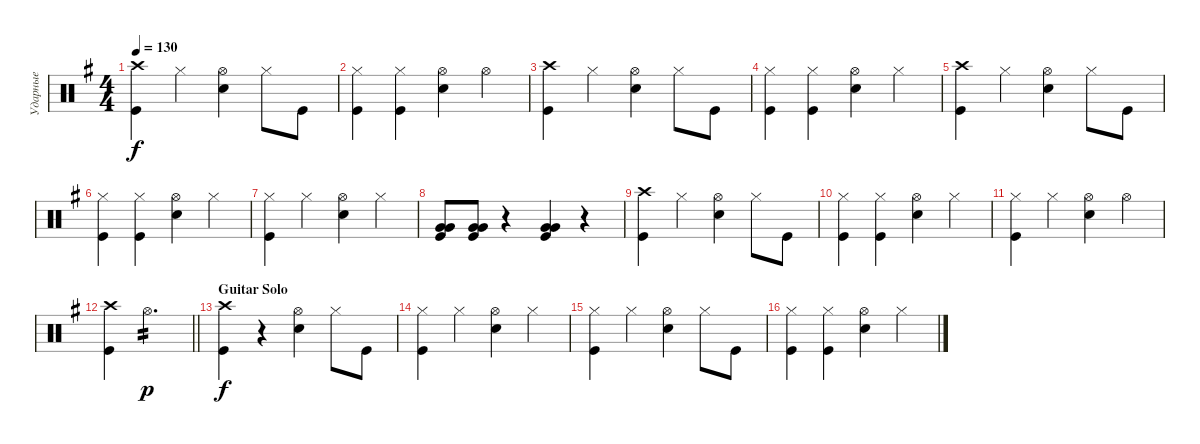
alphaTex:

\track ("Ударные" "Ударные") {instrument percussion}
\staff {score}
\articulation defaults
\ts (4 4)
\tempo 130
\clef neutral
\ks eminor
("Kick (hit)" "Crash high (hit)").4{dy f} "Hi-Hat (closed)".4 ("Hi-Hat (open)" "Snare (hit) 2").4 "Hi-Hat (closed)".8 "Kick (hit)".8 |
("Hi-Hat (closed)" "Kick (hit)").4 ("Hi-Hat (closed)" "Kick (hit)").4 ("Hi-Hat (open)" "Snare (hit) 2").4 "Hi-Hat (open)".4 |
("Crash high (hit)" "Kick (hit)").4 "Hi-Hat (closed)".4 ("Hi-Hat (open)" "Snare (hit) 2").4 "Hi-Hat (closed)".8 "Kick (hit)".8 |
("Hi-Hat (closed)" "Kick (hit)").4 ("Hi-Hat (closed)" "Kick (hit)").4 ("Hi-Hat (open)" "Snare (hit) 2").4 "Hi-Hat (closed)".4 |
("Kick (hit)" "Crash high (hit)").4 "Hi-Hat (closed)".4 ("Hi-Hat (open)" "Snare (hit) 2").4 "Hi-Hat (closed)".8 "Kick (hit)".8 |
("Hi-Hat (closed)" "Kick (hit)").4 ("Hi-Hat (closed)" "Kick (hit)").4 ("Hi-Hat (open)" "Snare (hit) 2").4 "Hi-Hat (closed)".4 |
("Hi-Hat (closed)" "Kick (hit)").4 "Hi-Hat (closed)".4 ("Hi-Hat (open)" "Snare (hit) 2").4 "Hi-Hat (closed)".4 |
("Kick (hit)" "Very Low Tom (hit)" "Very Low Tom (hit)").8{bd 240} ("Kick (hit)" "Very Low Tom (hit)" "Very Low Tom (hit)").8{bd 240} r.4 ("Very Low Tom (hit)" "Very Low Tom (hit)" "Kick (hit)").4{bd 120} r.4 |
("Kick (hit)" "Crash high (hit)").4 "Hi-Hat (closed)".4 ("Hi-Hat (open)" "Snare (hit) 2").4 "Hi-Hat (closed)".8 "Kick (hit)".8 |
("Hi-Hat (closed)" "Kick (hit)").4 ("Hi-Hat (closed)" "Kick (hit)").4 ("Hi-Hat (open)" "Snare (hit) 2").4 "Hi-Hat (closed)".4 |
("Hi-Hat (closed)" "Kick (hit)").4 "Hi-Hat (closed)".4 ("Hi-Hat (open)" "Snare (hit) 2").4 "Hi-Hat (open)".4 |
\barLineRight lightlight
("Kick (hit)" "Crash high (hit)").4 "Hi-Hat (open)".2{d tp 2 dy p} |
\section ("" "Guitar Solo")
("Crash high (hit)" "Kick (hit)").4{dy f} r.4 ("Hi-Hat (open)" "Snare (hit) 2").4 "Hi-Hat (closed)".8 "Kick (hit)".8 |
("Hi-Hat (closed)" "Kick (hit)").4 "Hi-Hat (closed)".4 ("Hi-Hat (open)" "Snare (hit) 2").4 "Hi-Hat (closed)".4 |
("Hi-Hat (closed)" "Kick (hit)").4 "Hi-Hat (closed)".4 ("Hi-Hat (open)" "Snare (hit) 2").4 "Hi-Hat (closed)".8 "Kick (hit)".8 |
("Hi-Hat (closed)" "Kick (hit)").4 ("Hi-Hat (closed)" "Kick (hit)").4 ("Hi-Hat (open)" "Snare (hit) 2").4 "Hi-Hat (closed)".4
